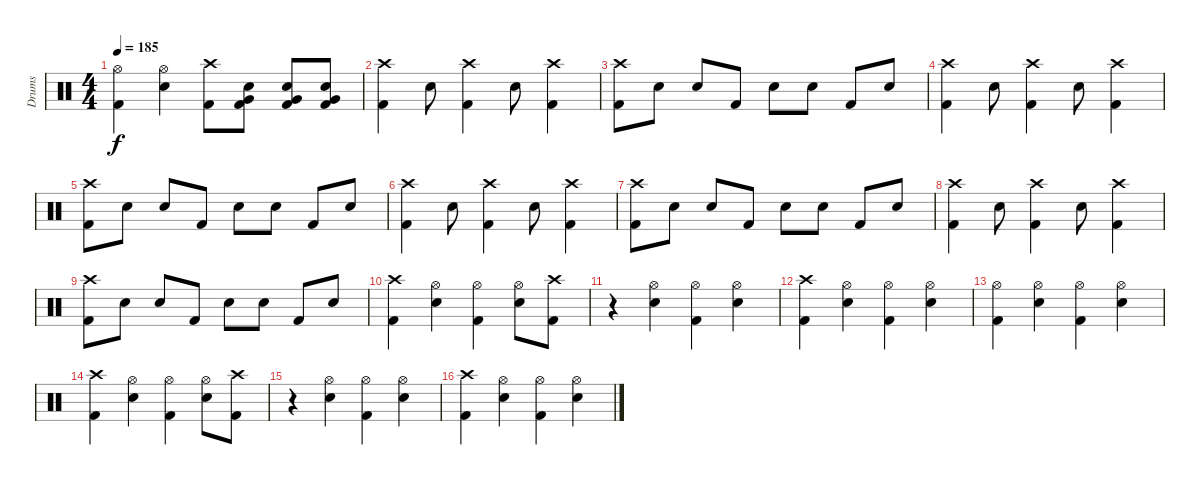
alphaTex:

\track ("Drums" "Drums") {instrument percussion}
\staff {score}
\articulation defaults
\ts (4 4)
\tempo 185
\clef neutral
\ks c
("Hi-Hat (open)" "Kick (hit) 2").4{dy f} ("Hi-Hat (open)" "Snare (hit) 2").4 ("Crash high (hit)" "Kick (hit) 2").8 ("Snare (hit) 2" "Very Low Tom (hit)" "Kick (hit) 2").8 ("Snare (hit) 2" "Very Low Tom (hit)" "Kick (hit) 2").8 ("Snare (hit) 2" "Very Low Tom (hit)" "Kick (hit) 2").8 |
("Crash high (hit)" "Kick (hit) 2").4 "Snare (hit) 2".8 ("Crash high (hit)" "Kick (hit) 2").4 "Snare (hit) 2".8 ("Crash high (hit)" "Kick (hit) 2").4 |
("Crash high (hit)" "Kick (hit) 2").8 "Snare (hit) 2".8 "Snare (hit) 2".8 "Kick (hit) 2".8 "Snare (hit) 2".8 "Snare (hit) 2".8 "Kick (hit) 2".8 "Snare (hit) 2".8 |
("Crash high (hit)" "Kick (hit) 2").4 "Snare (hit) 2".8 ("Crash high (hit)" "Kick (hit) 2").4 "Snare (hit) 2".8 ("Crash high (hit)" "Kick (hit) 2").4 |
("Crash high (hit)" "Kick (hit) 2").8 "Snare (hit) 2".8 "Snare (hit) 2".8 "Kick (hit) 2".8 "Snare (hit) 2".8 "Snare (hit) 2".8 "Kick (hit) 2".8 "Snare (hit) 2".8 |
("Crash high (hit)" "Kick (hit) 2").4 "Snare (hit) 2".8 ("Crash high (hit)" "Kick (hit) 2").4 "Snare (hit) 2".8 ("Crash high (hit)" "Kick (hit) 2").4 |
("Crash high (hit)" "Kick (hit) 2").8 "Snare (hit) 2".8 "Snare (hit) 2".8 "Kick (hit) 2".8 "Snare (hit) 2".8 "Snare (hit) 2".8 "Kick (hit) 2".8 "Snare (hit) 2".8 |
("Crash high (hit)" "Kick (hit) 2").4 "Snare (hit) 2".8 ("Crash high (hit)" "Kick (hit) 2").4 "Snare (hit) 2".8 ("Crash high (hit)" "Kick (hit) 2").4 |
("Crash high (hit)" "Kick (hit) 2").8 "Snare (hit) 2".8 "Snare (hit) 2".8 "Kick (hit) 2".8 "Snare (hit) 2".8 "Snare (hit) 2".8 "Kick (hit) 2".8 "Snare (hit) 2".8 |
("Crash high (hit)" "Kick (hit) 2").4 ("Hi-Hat (open)" "Snare (hit) 2").4 ("Hi-Hat (open)" "Kick (hit) 2").4 ("Hi-Hat (open)" "Snare (hit) 2").8 ("Crash high (hit)" "Kick (hit) 2").8 |
r.4 ("Hi-Hat (open)" "Snare (hit) 2").4 ("Hi-Hat (open)" "Kick (hit) 2").4 ("Hi-Hat (open)" "Snare (hit) 2").4 |
("Crash high (hit)" "Kick (hit) 2").4 ("Hi-Hat (open)" "Snare (hit) 2").4 ("Hi-Hat (open)" "Kick (hit) 2").4 ("Hi-Hat (open)" "Snare (hit) 2").4 |
("Hi-Hat (open)" "Kick (hit) 2").4 ("Hi-Hat (open)" "Snare (hit) 2").4 ("Hi-Hat (open)" "Kick (hit) 2").4 ("Hi-Hat (open)" "Snare (hit) 2").4 |
("Crash high (hit)" "Kick (hit) 2").4 ("Hi-Hat (open)" "Snare (hit) 2").4 ("Hi-Hat (open)" "Kick (hit) 2").4 ("Hi-Hat (open)" "Snare (hit) 2").8 ("Crash high (hit)" "Kick (hit) 2").8 |
r.4 ("Hi-Hat (open)" "Snare (hit) 2").4 ("Hi-Hat (open)" "Kick (hit) 2").4 ("Hi-Hat (open)" "Snare (hit) 2").4 |
("Crash high (hit)" "Kick (hit) 2").4 ("Hi-Hat (open)" "Snare (hit) 2").4 ("Hi-Hat (open)" "Kick (hit) 2").4 ("Hi-Hat (open)" "Snare (hit) 2").4
